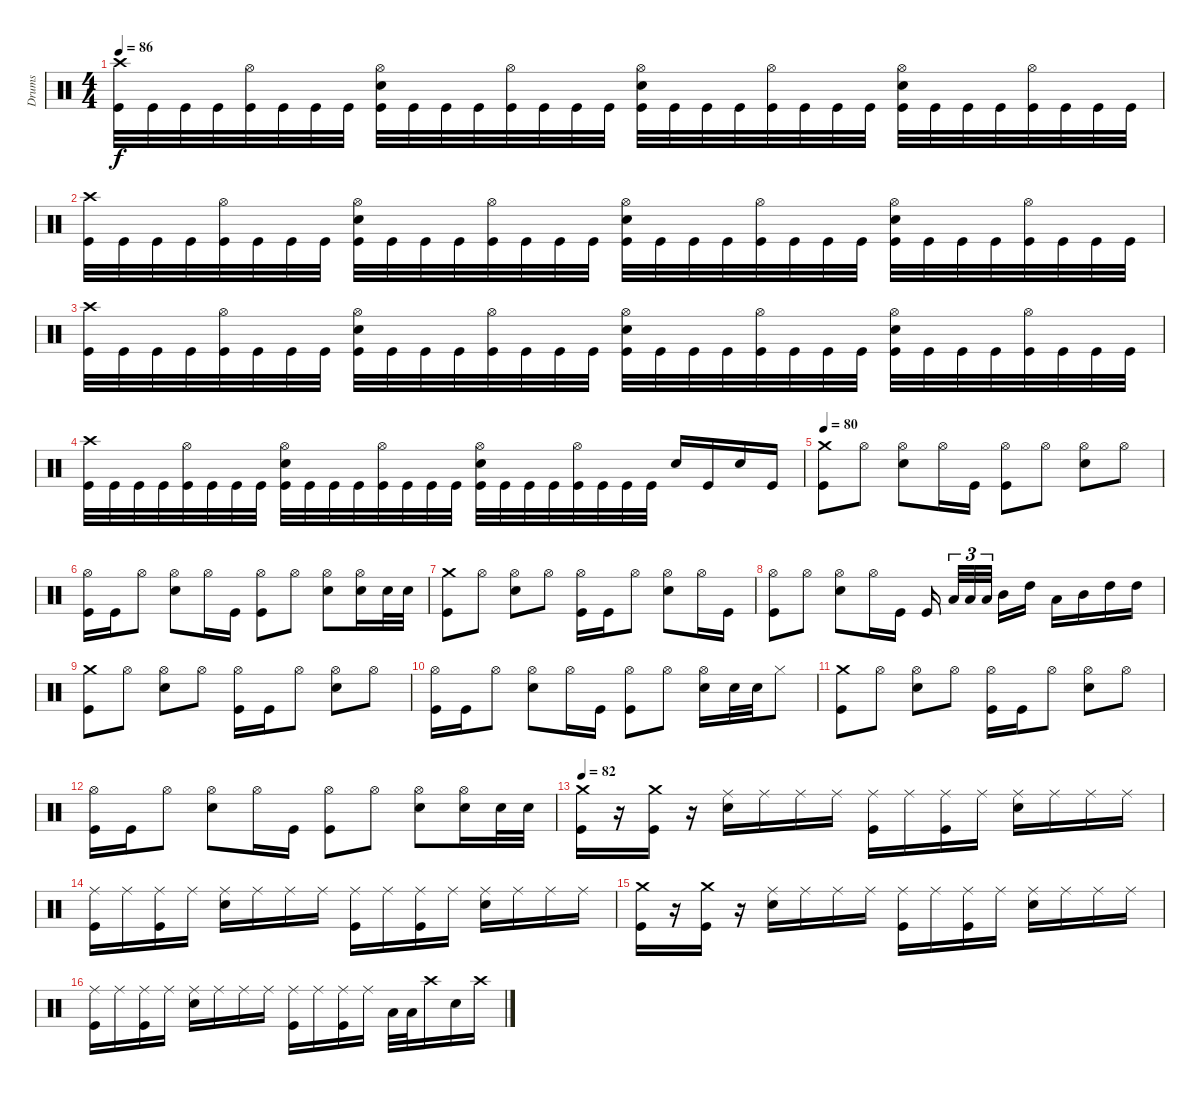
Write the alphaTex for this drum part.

\track ("Drums" "Drums") {instrument percussion}
\staff {score}
\articulation defaults
\ts (4 4)
\tempo 86
\clef neutral
\ks c
("Crash high (hit)" "Kick (hit)").32{dy f} "Kick (hit)".32 "Kick (hit)".32 "Kick (hit)".32 ("Hi-Hat (open)" "Kick (hit)").32 "Kick (hit)".32 "Kick (hit)".32 "Kick (hit)".32 ("Hi-Hat (open)" "Snare (hit) 2" "Kick (hit)").32 "Kick (hit)".32 "Kick (hit)".32 "Kick (hit)".32 ("Hi-Hat (open)" "Kick (hit)").32 "Kick (hit)".32 "Kick (hit)".32 "Kick (hit)".32 ("Hi-Hat (open)" "Snare (hit) 2" "Kick (hit)").32 "Kick (hit)".32 "Kick (hit)".32 "Kick (hit)".32 ("Hi-Hat (open)" "Kick (hit)").32 "Kick (hit)".32 "Kick (hit)".32 "Kick (hit)".32 ("Hi-Hat (open)" "Snare (hit) 2" "Kick (hit)").32 "Kick (hit)".32 "Kick (hit)".32 "Kick (hit)".32 ("Hi-Hat (open)" "Kick (hit)").32 "Kick (hit)".32 "Kick (hit)".32 "Kick (hit)".32 |
("Crash high (hit)" "Kick (hit)").32 "Kick (hit)".32 "Kick (hit)".32 "Kick (hit)".32 ("Hi-Hat (open)" "Kick (hit)").32 "Kick (hit)".32 "Kick (hit)".32 "Kick (hit)".32 ("Hi-Hat (open)" "Snare (hit) 2" "Kick (hit)").32 "Kick (hit)".32 "Kick (hit)".32 "Kick (hit)".32 ("Hi-Hat (open)" "Kick (hit)").32 "Kick (hit)".32 "Kick (hit)".32 "Kick (hit)".32 ("Hi-Hat (open)" "Snare (hit) 2" "Kick (hit)").32 "Kick (hit)".32 "Kick (hit)".32 "Kick (hit)".32 ("Hi-Hat (open)" "Kick (hit)").32 "Kick (hit)".32 "Kick (hit)".32 "Kick (hit)".32 ("Hi-Hat (open)" "Snare (hit) 2" "Kick (hit)").32 "Kick (hit)".32 "Kick (hit)".32 "Kick (hit)".32 ("Hi-Hat (open)" "Kick (hit)").32 "Kick (hit)".32 "Kick (hit)".32 "Kick (hit)".32 |
("Crash high (hit)" "Kick (hit)").32 "Kick (hit)".32 "Kick (hit)".32 "Kick (hit)".32 ("Hi-Hat (open)" "Kick (hit)").32 "Kick (hit)".32 "Kick (hit)".32 "Kick (hit)".32 ("Hi-Hat (open)" "Snare (hit) 2" "Kick (hit)").32 "Kick (hit)".32 "Kick (hit)".32 "Kick (hit)".32 ("Hi-Hat (open)" "Kick (hit)").32 "Kick (hit)".32 "Kick (hit)".32 "Kick (hit)".32 ("Hi-Hat (open)" "Snare (hit) 2" "Kick (hit)").32 "Kick (hit)".32 "Kick (hit)".32 "Kick (hit)".32 ("Hi-Hat (open)" "Kick (hit)").32 "Kick (hit)".32 "Kick (hit)".32 "Kick (hit)".32 ("Hi-Hat (open)" "Snare (hit) 2" "Kick (hit)").32 "Kick (hit)".32 "Kick (hit)".32 "Kick (hit)".32 ("Hi-Hat (open)" "Kick (hit)").32 "Kick (hit)".32 "Kick (hit)".32 "Kick (hit)".32 |
("Crash high (hit)" "Kick (hit)").32 "Kick (hit)".32 "Kick (hit)".32 "Kick (hit)".32 ("Hi-Hat (open)" "Kick (hit)").32 "Kick (hit)".32 "Kick (hit)".32 "Kick (hit)".32 ("Hi-Hat (open)" "Snare (hit) 2" "Kick (hit)").32 "Kick (hit)".32 "Kick (hit)".32 "Kick (hit)".32 ("Hi-Hat (open)" "Kick (hit)").32 "Kick (hit)".32 "Kick (hit)".32 "Kick (hit)".32 ("Hi-Hat (open)" "Snare (hit) 2" "Kick (hit)").32 "Kick (hit)".32 "Kick (hit)".32 "Kick (hit)".32 ("Hi-Hat (open)" "Kick (hit)").32 "Kick (hit)".32 "Kick (hit)".32 "Kick (hit)".32 "Snare (hit) 2".16 "Kick (hit)".16 "Snare (hit) 2".16 "Kick (hit)".16 |
\tempo 80
("Crash medium (hit)" "Kick (hit)").8 "Hi-Hat (open)".8 ("Hi-Hat (open)" "Snare (hit) 2").8 "Hi-Hat (open)".16 "Kick (hit)".16 ("Hi-Hat (open)" "Kick (hit)").8 "Hi-Hat (open)".8 ("Hi-Hat (open)" "Snare (hit) 2").8 "Hi-Hat (open)".8 |
("Hi-Hat (open)" "Kick (hit)").16 "Kick (hit)".16 "Hi-Hat (open)".8 ("Hi-Hat (open)" "Snare (hit) 2").8 "Hi-Hat (open)".16 "Kick (hit)".16 ("Hi-Hat (open)" "Kick (hit)").8 "Hi-Hat (open)".8 ("Hi-Hat (open)" "Snare (hit) 2").8 ("Hi-Hat (open)" "Snare (hit) 2").16 "Snare (hit) 2".32 "Snare (hit) 2".32 |
("Crash medium (hit)" "Kick (hit)").8 "Hi-Hat (open)".8 ("Hi-Hat (open)" "Snare (hit) 2").8 "Hi-Hat (open)".8 ("Hi-Hat (open)" "Kick (hit)").16 "Kick (hit)".16 "Hi-Hat (open)".8 ("Hi-Hat (open)" "Snare (hit) 2").8 "Hi-Hat (open)".16 "Kick (hit)".16 |
("Hi-Hat (open)" "Kick (hit)").8 "Hi-Hat (open)".8 ("Hi-Hat (open)" "Snare (hit) 2").8 "Hi-Hat (open)".16 "Kick (hit)".16 "Kick (hit)".16 "Low Tom (hit)".32{tu (3 2)} "Low Tom (hit)".32{tu (3 2)} "Low Tom (hit)".32{tu (3 2)} "Mid Tom (hit)".16 "High Tom (hit)".16 "Low Tom (hit)".16 "Mid Tom (hit)".16 "High Tom (hit)".16 "High Tom (hit)".16 |
("Crash medium (hit)" "Kick (hit)").8 "Hi-Hat (open)".8 ("Hi-Hat (open)" "Snare (hit) 2").8 "Hi-Hat (open)".8 ("Hi-Hat (open)" "Kick (hit)").16 "Kick (hit)".16 "Hi-Hat (open)".8 ("Hi-Hat (open)" "Snare (hit) 2").8 "Hi-Hat (open)".8 |
("Hi-Hat (open)" "Kick (hit)").16 "Kick (hit)".16 "Hi-Hat (open)".8 ("Hi-Hat (open)" "Snare (hit) 2").8 "Hi-Hat (open)".16 "Kick (hit)".16 ("Hi-Hat (open)" "Kick (hit)").8 "Hi-Hat (open)".8 ("Hi-Hat (open)" "Snare (hit) 2").16 "Snare (hit) 2".32 "Snare (hit) 2".32 "Hi-Hat (closed)".8 |
("Crash medium (hit)" "Kick (hit)").8 "Hi-Hat (open)".8 ("Hi-Hat (open)" "Snare (hit) 2").8 "Hi-Hat (open)".8 ("Hi-Hat (open)" "Kick (hit)").16 "Kick (hit)".16 "Hi-Hat (open)".8 ("Hi-Hat (open)" "Snare (hit) 2").8 "Hi-Hat (open)".8 |
("Hi-Hat (open)" "Kick (hit)").16 "Kick (hit)".16 "Hi-Hat (open)".8 ("Hi-Hat (open)" "Snare (hit) 2").8 "Hi-Hat (open)".16 "Kick (hit)".16 ("Hi-Hat (open)" "Kick (hit)").8 "Hi-Hat (open)".8 ("Hi-Hat (open)" "Snare (hit) 2").8 ("Hi-Hat (open)" "Snare (hit) 2").16 "Snare (hit) 2".32 "Snare (hit) 2".32 |
\tempo 82
("Crash medium (hit)" "Kick (hit)").16 r.16 ("Crash medium (hit)" "Kick (hit)").16 r.16 ("Ride (middle)" "Snare (hit) 2").16 "Ride (middle)".16 "Ride (middle)".16 "Ride (middle)".16 ("Ride (middle)" "Kick (hit)").16 "Ride (middle)".16 ("Ride (middle)" "Kick (hit)").16 "Ride (middle)".16 ("Ride (middle)" "Snare (hit) 2").16 "Ride (middle)".16 "Ride (middle)".16 "Ride (middle)".16 |
("Ride (middle)" "Kick (hit)").16 "Ride (middle)".16 ("Ride (middle)" "Kick (hit)").16 "Ride (middle)".16 ("Ride (middle)" "Snare (hit) 2").16 "Ride (middle)".16 "Ride (middle)".16 "Ride (middle)".16 ("Ride (middle)" "Kick (hit)").16 "Ride (middle)".16 ("Ride (middle)" "Kick (hit)").16 "Ride (middle)".16 ("Ride (middle)" "Snare (hit) 2").16 "Ride (middle)".16 "Ride (middle)".16 "Ride (middle)".16 |
("Crash medium (hit)" "Kick (hit)").16 r.16 ("Crash medium (hit)" "Kick (hit)").16 r.16 ("Ride (middle)" "Snare (hit) 2").16 "Ride (middle)".16 "Ride (middle)".16 "Ride (middle)".16 ("Ride (middle)" "Kick (hit)").16 "Ride (middle)".16 ("Ride (middle)" "Kick (hit)").16 "Ride (middle)".16 ("Ride (middle)" "Snare (hit) 2").16 "Ride (middle)".16 "Ride (middle)".16 "Ride (middle)".16 |
("Ride (middle)" "Kick (hit)").16 "Ride (middle)".16 ("Ride (middle)" "Kick (hit)").16 "Ride (middle)".16 ("Ride (middle)" "Snare (hit) 2").16 "Ride (middle)".16 "Ride (middle)".16 "Ride (middle)".16 ("Ride (middle)" "Kick (hit)").16 "Ride (middle)".16 ("Ride (middle)" "Kick (hit)").16 "Ride (middle)".16 "Low Tom (hit)".32 "Low Tom (hit)".32 "Crash high (hit)".16 "Snare (hit) 2".16 "Crash high (hit)".16
